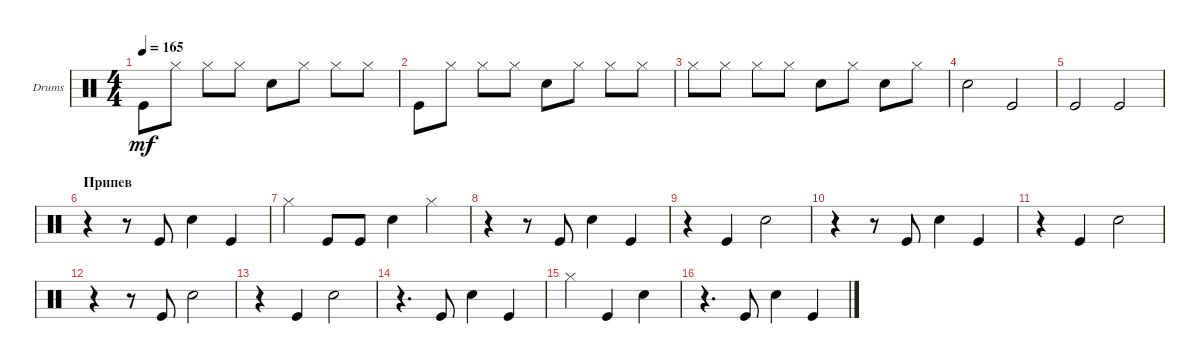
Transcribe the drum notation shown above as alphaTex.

\bracketExtendMode groupsimilarinstruments
\firstSystemTrackNameOrientation horizontal
\otherSystemsTrackNameOrientation horizontal
\track ("Pen Tapping" "Drums") {instrument percussion}
\staff {score}
\articulation defaults
\ts (4 4)
\tempo 165
\clef neutral
\scale
0.333333
\ks c "Kick (hit)".8{dy mf} "Hi-Hat (closed)".8 "Hi-Hat (closed)".8 "Hi-Hat (closed)".8 "Snare (hit) 2".8 "Hi-Hat (closed)".8 "Hi-Hat (closed)".8 "Hi-Hat (closed)".8
|
\scale
0.333333 "Kick (hit)".8 "Hi-Hat (closed)".8 "Hi-Hat (closed)".8 "Hi-Hat (closed)".8 "Snare (hit) 2".8 "Hi-Hat (closed)".8 "Hi-Hat (closed)".8 "Hi-Hat (closed)".8 |
\scale
0.333333 "Hi-Hat (closed)".8 "Hi-Hat (closed)".8 "Hi-Hat (closed)".8 "Hi-Hat (closed)".8 "Snare (hit) 2".8 "Hi-Hat (closed)".8 "Snare (hit) 2".8 "Hi-Hat (closed)".8 |
\scale
0.333333 "Snare (hit) 2".2 "Kick (hit)".2 |
\scale
0.333333 "Kick (hit)".2 "Kick (hit)".2 |
\section ("" "Припев")
\scale
0.333333 r.4 r.8 "Kick (hit)".8 "Snare (hit) 2".4 "Kick (hit)".4 |
\scale
0.333333 "Hi-Hat (closed)".4 "Kick (hit)".8 "Kick (hit)".8 "Snare (hit) 2".4 "Hi-Hat (closed)".4 |
\scale
0.333333 r.4 r.8 "Kick (hit)".8 "Snare (hit) 2".4 "Kick (hit)".4 |
\scale
0.333333 r.4 "Kick (hit)".4 "Snare (hit) 2".2 |
\scale
0.333333 r.4 r.8 "Kick (hit)".8 "Snare (hit) 2".4 "Kick (hit)".4 |
\scale
0.333333 r.4 "Kick (hit)".4 "Snare (hit) 2".2 |
\scale
0.333333 r.4 r.8 "Kick (hit)".8 "Snare (hit) 2".2 |
\scale
0.311475 r.4 "Kick (hit)".4 "Snare (hit) 2".2 |
\scale
0.311475 r.4{d} "Kick (hit)".8 "Snare (hit) 2".4 "Kick (hit)".4 |
"Hi-Hat (closed)".4 "Kick (hit)".4 "Snare (hit) 2".4 |
r.4{d} "Kick (hit)".8 "Snare (hit) 2".4 "Kick (hit)".4
